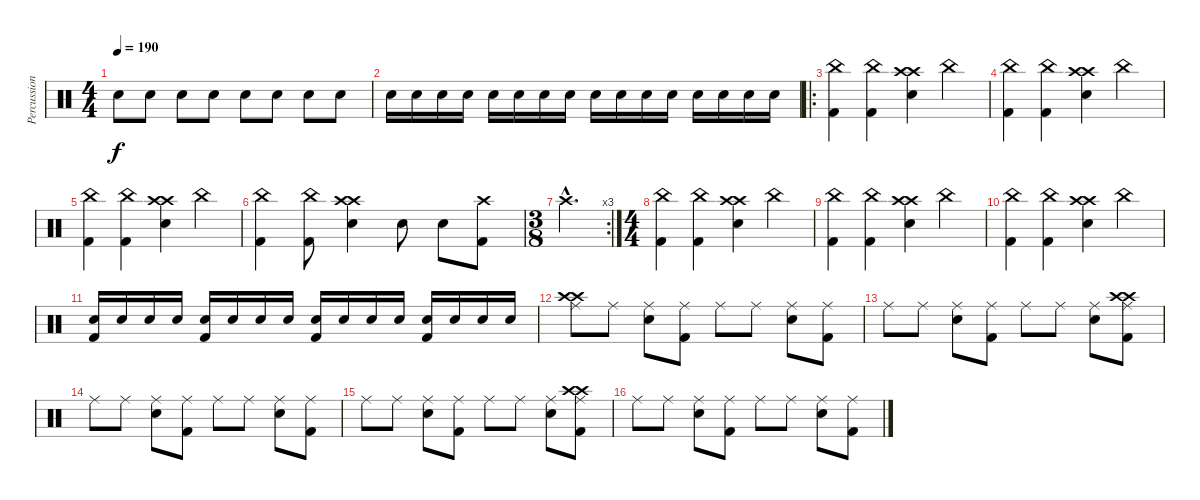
\track ("Percussion" "Percussion") {instrument percussion}
\staff {score}
\articulation defaults
\ts (4 4)
\tempo 190
\clef neutral
\ks c "Snare (hit) 2".8{dy f} "Snare (hit) 2".8 "Snare (hit) 2".8 "Snare (hit) 2".8 "Snare (hit) 2".8 "Snare (hit) 2".8 "Snare (hit) 2".8 "Snare (hit) 2".8
|
"Snare (hit) 2".16 "Snare (hit) 2".16 "Snare (hit) 2".16 "Snare (hit) 2".16 "Snare (hit) 2".16 "Snare (hit) 2".16 "Snare (hit) 2".16 "Snare (hit) 2".16 "Snare (hit) 2".16 "Snare (hit) 2".16 "Snare (hit) 2".16 "Snare (hit) 2".16 "Snare (hit) 2".16 "Snare (hit) 2".16 "Snare (hit) 2".16 "Snare (hit) 2".16 |
\ro
("China (hit)" "Kick (hit) 2").4 ("China (hit)" "Kick (hit) 2").4 ("Crash high (hit)" "Crash high (hit)" "Snare (hit) 2").4 "China (hit)".4 |
("China (hit)" "Kick (hit) 2").4 ("China (hit)" "Kick (hit) 2").4 ("Crash high (hit)" "Crash high (hit)" "Snare (hit) 2").4 "China (hit)".4 |
("China (hit)" "Kick (hit) 2").4 ("China (hit)" "Kick (hit) 2").4 ("Crash high (hit)" "Crash high (hit)" "Snare (hit) 2").4 "China (hit)".4 |
("China (hit)" "Kick (hit) 2").4 ("China (hit)" "Kick (hit) 2").8 ("Crash high (hit)" "Crash high (hit)" "Snare (hit) 2").4 "Snare (hit) 2".8 "Snare (hit) 2".8 ("Crash high (hit)" "Kick (hit) 2").8 |
\rc 3
\ts (3 8)
"Crash high (hit)"{hac}.4{d} |
\ts (4 4)
("China (hit)" "Kick (hit) 2").4 ("China (hit)" "Kick (hit) 2").4 ("Crash high (hit)" "Crash high (hit)" "Snare (hit) 2").4 "China (hit)".4 |
("China (hit)" "Kick (hit) 2").4 ("China (hit)" "Kick (hit) 2").4 ("Crash high (hit)" "Crash high (hit)" "Snare (hit) 2").4 "China (hit)".4 |
("China (hit)" "Kick (hit) 2").4 ("China (hit)" "Kick (hit) 2").4 ("Crash high (hit)" "Crash high (hit)" "Snare (hit) 2").4 "China (hit)".4 |
("Snare (hit) 2" "Kick (hit) 2").16 "Snare (hit) 2".16 "Snare (hit) 2".16 "Snare (hit) 2".16 ("Snare (hit) 2" "Kick (hit) 2").16 "Snare (hit) 2".16 "Snare (hit) 2".16 "Snare (hit) 2".16 ("Snare (hit) 2" "Kick (hit) 2").16 "Snare (hit) 2".16 "Snare (hit) 2".16 "Snare (hit) 2".16 ("Snare (hit) 2" "Kick (hit) 2").16 "Snare (hit) 2".16 "Snare (hit) 2".16 "Snare (hit) 2".16 |
("Ride (middle)" "Crash high (hit)" "Crash high (hit)").8 "Ride (middle)".8 ("Ride (middle)" "Snare (hit) 2").8 ("Ride (middle)" "Kick (hit) 2").8 "Ride (middle)".8 "Ride (middle)".8 ("Ride (middle)" "Snare (hit) 2").8 ("Ride (middle)" "Kick (hit) 2").8 |
"Ride (middle)".8 "Ride (middle)".8 ("Ride (middle)" "Snare (hit) 2").8 ("Ride (middle)" "Kick (hit) 2").8 "Ride (middle)".8 "Ride (middle)".8 ("Ride (middle)" "Snare (hit) 2").8 ("Ride (middle)" "Kick (hit) 2" "Crash high (hit)" "Crash high (hit)").8 |
"Ride (middle)".8 "Ride (middle)".8 ("Ride (middle)" "Snare (hit) 2").8 ("Ride (middle)" "Kick (hit) 2").8 "Ride (middle)".8 "Ride (middle)".8 ("Ride (middle)" "Snare (hit) 2").8 ("Ride (middle)" "Kick (hit) 2").8 |
"Ride (middle)".8 "Ride (middle)".8 ("Ride (middle)" "Snare (hit) 2").8 ("Ride (middle)" "Kick (hit) 2").8 "Ride (middle)".8 "Ride (middle)".8 ("Ride (middle)" "Snare (hit) 2").8 ("Ride (middle)" "Kick (hit) 2" "Crash high (hit)" "Crash high (hit)").8 |
"Ride (middle)".8 "Ride (middle)".8 ("Ride (middle)" "Snare (hit) 2").8 ("Ride (middle)" "Kick (hit) 2").8 "Ride (middle)".8 "Ride (middle)".8 ("Ride (middle)" "Snare (hit) 2").8 ("Ride (middle)" "Kick (hit) 2").8
